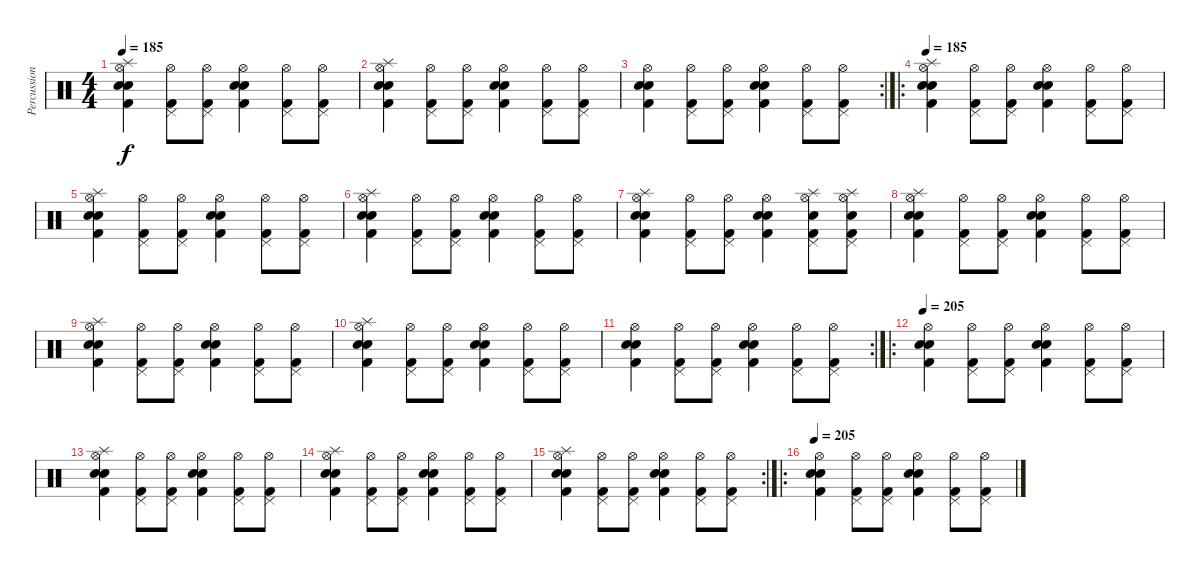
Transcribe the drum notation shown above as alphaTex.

\track ("Percussions" "Percussion") {instrument percussion}
\staff {score}
\articulation defaults
\ts (4 4)
\tempo 185
\clef neutral
\ks c
("Hi-Hat (open)" "Splash (hit)" "Kick (hit) 2" "Snare (hit) 2" "Electric Snare (hit)").4{dy f} ("Hi-Hat (open)" "Pedal Hi-Hat (hit)" "Kick (hit) 2").8 ("Hi-Hat (open)" "Pedal Hi-Hat (hit)" "Kick (hit) 2").8 ("Electric Snare (hit)" "Snare (hit) 2" "Hi-Hat (open)" "Kick (hit) 2").4 ("Hi-Hat (open)" "Pedal Hi-Hat (hit)" "Kick (hit) 2").8 ("Hi-Hat (open)" "Pedal Hi-Hat (hit)" "Kick (hit) 2").8 |
("Hi-Hat (open)" "Splash (hit)" "Kick (hit) 2" "Snare (hit) 2" "Electric Snare (hit)").4 ("Hi-Hat (open)" "Pedal Hi-Hat (hit)" "Kick (hit) 2").8 ("Hi-Hat (open)" "Pedal Hi-Hat (hit)" "Kick (hit) 2").8 ("Electric Snare (hit)" "Snare (hit) 2" "Hi-Hat (open)" "Kick (hit) 2").4 ("Hi-Hat (open)" "Pedal Hi-Hat (hit)" "Kick (hit) 2").8 ("Hi-Hat (open)" "Pedal Hi-Hat (hit)" "Kick (hit) 2").8 |
\rc 2
("Hi-Hat (open)" "Kick (hit) 2" "Snare (hit) 2" "Electric Snare (hit)").4 ("Hi-Hat (open)" "Pedal Hi-Hat (hit)" "Kick (hit) 2").8 ("Hi-Hat (open)" "Pedal Hi-Hat (hit)" "Kick (hit) 2").8 ("Electric Snare (hit)" "Snare (hit) 2" "Hi-Hat (open)" "Kick (hit) 2").4 ("Hi-Hat (open)" "Pedal Hi-Hat (hit)" "Kick (hit) 2").8 ("Hi-Hat (open)" "Pedal Hi-Hat (hit)" "Kick (hit) 2").8 |
\ro
\tempo 185
("Hi-Hat (open)" "Splash (hit)" "Kick (hit) 2" "Snare (hit) 2" "Electric Snare (hit)").4 ("Hi-Hat (open)" "Pedal Hi-Hat (hit)" "Kick (hit) 2").8 ("Hi-Hat (open)" "Pedal Hi-Hat (hit)" "Kick (hit) 2").8 ("Electric Snare (hit)" "Snare (hit) 2" "Hi-Hat (open)" "Kick (hit) 2").4 ("Hi-Hat (open)" "Pedal Hi-Hat (hit)" "Kick (hit) 2").8 ("Hi-Hat (open)" "Pedal Hi-Hat (hit)" "Kick (hit) 2").8 |
("Hi-Hat (open)" "Splash (hit)" "Kick (hit) 2" "Snare (hit) 2" "Electric Snare (hit)").4 ("Hi-Hat (open)" "Pedal Hi-Hat (hit)" "Kick (hit) 2").8 ("Hi-Hat (open)" "Pedal Hi-Hat (hit)" "Kick (hit) 2").8 ("Electric Snare (hit)" "Snare (hit) 2" "Hi-Hat (open)" "Kick (hit) 2").4 ("Hi-Hat (open)" "Pedal Hi-Hat (hit)" "Kick (hit) 2").8 ("Hi-Hat (open)" "Pedal Hi-Hat (hit)" "Kick (hit) 2").8 |
("Hi-Hat (open)" "Splash (hit)" "Kick (hit) 2" "Snare (hit) 2" "Electric Snare (hit)").4 ("Hi-Hat (open)" "Pedal Hi-Hat (hit)" "Kick (hit) 2").8 ("Hi-Hat (open)" "Pedal Hi-Hat (hit)" "Kick (hit) 2").8 ("Electric Snare (hit)" "Snare (hit) 2" "Hi-Hat (open)" "Kick (hit) 2").4 ("Hi-Hat (open)" "Pedal Hi-Hat (hit)" "Kick (hit) 2").8 ("Hi-Hat (open)" "Pedal Hi-Hat (hit)" "Kick (hit) 2").8 |
("Hi-Hat (open)" "Splash (hit)" "Kick (hit) 2" "Snare (hit) 2" "Electric Snare (hit)").4 ("Hi-Hat (open)" "Pedal Hi-Hat (hit)" "Kick (hit) 2").8 ("Hi-Hat (open)" "Pedal Hi-Hat (hit)" "Kick (hit) 2").8 ("Electric Snare (hit)" "Snare (hit) 2" "Hi-Hat (open)" "Kick (hit) 2").4 ("Hi-Hat (open)" "Splash (hit)" "Pedal Hi-Hat (hit)" "Kick (hit) 2" "Electric Snare (hit)").8 ("Splash (hit)" "Hi-Hat (open)" "Pedal Hi-Hat (hit)" "Kick (hit) 2" "Electric Snare (hit)").8 |
("Hi-Hat (open)" "Splash (hit)" "Kick (hit) 2" "Snare (hit) 2" "Electric Snare (hit)").4 ("Hi-Hat (open)" "Pedal Hi-Hat (hit)" "Kick (hit) 2").8 ("Hi-Hat (open)" "Pedal Hi-Hat (hit)" "Kick (hit) 2").8 ("Electric Snare (hit)" "Snare (hit) 2" "Hi-Hat (open)" "Kick (hit) 2").4 ("Hi-Hat (open)" "Pedal Hi-Hat (hit)" "Kick (hit) 2").8 ("Hi-Hat (open)" "Pedal Hi-Hat (hit)" "Kick (hit) 2").8 |
("Hi-Hat (open)" "Splash (hit)" "Kick (hit) 2" "Snare (hit) 2" "Electric Snare (hit)").4 ("Hi-Hat (open)" "Pedal Hi-Hat (hit)" "Kick (hit) 2").8 ("Hi-Hat (open)" "Pedal Hi-Hat (hit)" "Kick (hit) 2").8 ("Electric Snare (hit)" "Snare (hit) 2" "Hi-Hat (open)" "Kick (hit) 2").4 ("Hi-Hat (open)" "Pedal Hi-Hat (hit)" "Kick (hit) 2").8 ("Hi-Hat (open)" "Pedal Hi-Hat (hit)" "Kick (hit) 2").8 |
("Hi-Hat (open)" "Splash (hit)" "Kick (hit) 2" "Snare (hit) 2" "Electric Snare (hit)").4 ("Hi-Hat (open)" "Pedal Hi-Hat (hit)" "Kick (hit) 2").8 ("Hi-Hat (open)" "Pedal Hi-Hat (hit)" "Kick (hit) 2").8 ("Electric Snare (hit)" "Snare (hit) 2" "Hi-Hat (open)" "Kick (hit) 2").4 ("Hi-Hat (open)" "Pedal Hi-Hat (hit)" "Kick (hit) 2").8 ("Hi-Hat (open)" "Pedal Hi-Hat (hit)" "Kick (hit) 2").8 |
\rc 2
("Hi-Hat (open)" "Kick (hit) 2" "Snare (hit) 2" "Electric Snare (hit)").4 ("Hi-Hat (open)" "Pedal Hi-Hat (hit)" "Kick (hit) 2").8 ("Hi-Hat (open)" "Pedal Hi-Hat (hit)" "Kick (hit) 2").8 ("Electric Snare (hit)" "Snare (hit) 2" "Hi-Hat (open)" "Kick (hit) 2").4 ("Hi-Hat (open)" "Pedal Hi-Hat (hit)" "Kick (hit) 2").8 ("Hi-Hat (open)" "Pedal Hi-Hat (hit)" "Kick (hit) 2").8 |
\ro
\tempo 205
("Hi-Hat (open)" "Kick (hit) 2" "Snare (hit) 2" "Electric Snare (hit)").4 ("Hi-Hat (open)" "Pedal Hi-Hat (hit)" "Kick (hit) 2").8 ("Hi-Hat (open)" "Pedal Hi-Hat (hit)" "Kick (hit) 2").8 ("Hi-Hat (open)" "Kick (hit) 2" "Snare (hit) 2" "Electric Snare (hit)").4 ("Hi-Hat (open)" "Pedal Hi-Hat (hit)" "Kick (hit) 2").8 ("Hi-Hat (open)" "Pedal Hi-Hat (hit)" "Kick (hit) 2").8 |
("Splash (hit)" "Hi-Hat (open)" "Kick (hit) 2" "Snare (hit) 2" "Electric Snare (hit)").4 ("Hi-Hat (open)" "Pedal Hi-Hat (hit)" "Kick (hit) 2").8 ("Hi-Hat (open)" "Pedal Hi-Hat (hit)" "Kick (hit) 2").8 ("Hi-Hat (open)" "Kick (hit) 2" "Snare (hit) 2" "Electric Snare (hit)").4 ("Hi-Hat (open)" "Pedal Hi-Hat (hit)" "Kick (hit) 2").8 ("Hi-Hat (open)" "Pedal Hi-Hat (hit)" "Kick (hit) 2").8 |
("Splash (hit)" "Hi-Hat (open)" "Kick (hit) 2" "Snare (hit) 2" "Electric Snare (hit)").4 ("Hi-Hat (open)" "Pedal Hi-Hat (hit)" "Kick (hit) 2").8 ("Hi-Hat (open)" "Pedal Hi-Hat (hit)" "Kick (hit) 2").8 ("Hi-Hat (open)" "Kick (hit) 2" "Snare (hit) 2" "Electric Snare (hit)").4 ("Hi-Hat (open)" "Pedal Hi-Hat (hit)" "Kick (hit) 2").8 ("Hi-Hat (open)" "Pedal Hi-Hat (hit)" "Kick (hit) 2").8 |
\rc 2
("Splash (hit)" "Hi-Hat (open)" "Kick (hit) 2" "Snare (hit) 2" "Electric Snare (hit)").4 ("Hi-Hat (open)" "Pedal Hi-Hat (hit)" "Kick (hit) 2").8 ("Hi-Hat (open)" "Pedal Hi-Hat (hit)" "Kick (hit) 2").8 ("Hi-Hat (open)" "Kick (hit) 2" "Snare (hit) 2" "Electric Snare (hit)").4 ("Hi-Hat (open)" "Pedal Hi-Hat (hit)" "Kick (hit) 2").8 ("Hi-Hat (open)" "Pedal Hi-Hat (hit)" "Kick (hit) 2").8 |
\ro
\tempo 205
("Hi-Hat (open)" "Kick (hit) 2" "Snare (hit) 2" "Electric Snare (hit)").4 ("Hi-Hat (open)" "Pedal Hi-Hat (hit)" "Kick (hit) 2").8 ("Hi-Hat (open)" "Pedal Hi-Hat (hit)" "Kick (hit) 2").8 ("Hi-Hat (open)" "Kick (hit) 2" "Snare (hit) 2" "Electric Snare (hit)").4 ("Hi-Hat (open)" "Pedal Hi-Hat (hit)" "Kick (hit) 2").8 ("Hi-Hat (open)" "Pedal Hi-Hat (hit)" "Kick (hit) 2").8
